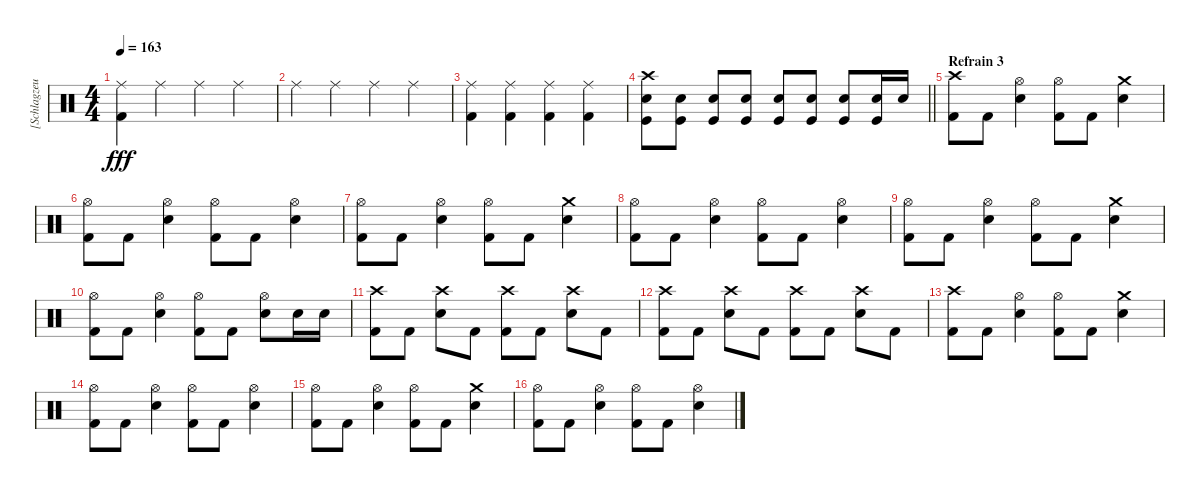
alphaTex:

\track ("[Schlagzeug]" "[Schlagzeu") {instrument percussion}
\staff {score}
\articulation defaults
\ts (4 4)
\tempo 163
\clef neutral
\ks c
("Ride (middle)" "Kick (hit) 2").4{dy fff} "Ride (middle)".4 "Ride (middle)".4 "Ride (middle)".4 |
"Ride (middle)".4 "Ride (middle)".4 "Ride (middle)".4 "Ride (middle)".4 |
("Ride (middle)" "Kick (hit) 2").4 ("Ride (middle)" "Kick (hit) 2").4 ("Ride (middle)" "Kick (hit) 2").4 ("Ride (middle)" "Kick (hit) 2").4 |
\barLineRight lightlight
("Crash high (hit)" "Electric Snare (hit)" "Kick (hit)").8 ("Electric Snare (hit)" "Kick (hit)").8 ("Electric Snare (hit)" "Kick (hit)").8 ("Electric Snare (hit)" "Kick (hit)").8 ("Electric Snare (hit)" "Kick (hit)").8 ("Electric Snare (hit)" "Kick (hit)").8 ("Electric Snare (hit)" "Kick (hit)").8 ("Electric Snare (hit)" "Kick (hit)").16 "Electric Snare (hit)".16 |
\section ("" "Refrain 3")
("Crash high (hit)" "Kick (hit) 2").8 "Kick (hit) 2".8 ("Hi-Hat (open)" "Electric Snare (hit)").4 ("Hi-Hat (open)" "Kick (hit) 2").8 "Kick (hit) 2".8 ("Crash medium (hit)" "Electric Snare (hit)").4 |
("Hi-Hat (open)" "Kick (hit) 2").8 "Kick (hit) 2".8 ("Hi-Hat (open)" "Electric Snare (hit)").4 ("Hi-Hat (open)" "Kick (hit) 2").8 "Kick (hit) 2".8 ("Hi-Hat (open)" "Electric Snare (hit)").4 |
("Hi-Hat (open)" "Kick (hit) 2").8 "Kick (hit) 2".8 ("Hi-Hat (open)" "Electric Snare (hit)").4 ("Hi-Hat (open)" "Kick (hit) 2").8 "Kick (hit) 2".8 ("Crash medium (hit)" "Electric Snare (hit)").4 |
("Hi-Hat (open)" "Kick (hit) 2").8 "Kick (hit) 2".8 ("Hi-Hat (open)" "Electric Snare (hit)").4 ("Hi-Hat (open)" "Kick (hit) 2").8 "Kick (hit) 2".8 ("Hi-Hat (open)" "Electric Snare (hit)").4 |
("Hi-Hat (open)" "Kick (hit) 2").8 "Kick (hit) 2".8 ("Hi-Hat (open)" "Electric Snare (hit)").4 ("Hi-Hat (open)" "Kick (hit) 2").8 "Kick (hit) 2".8 ("Crash medium (hit)" "Electric Snare (hit)").4 |
("Hi-Hat (open)" "Kick (hit) 2").8 "Kick (hit) 2".8 ("Hi-Hat (open)" "Electric Snare (hit)").4 ("Hi-Hat (open)" "Kick (hit) 2").8 "Kick (hit) 2".8 ("Hi-Hat (open)" "Electric Snare (hit)").8 "Electric Snare (hit)".16 "Electric Snare (hit)".16 |
("Crash high (hit)" "Kick (hit) 2").8 "Kick (hit) 2".8 ("Crash high (hit)" "Electric Snare (hit)").8 "Kick (hit) 2".8 ("Crash high (hit)" "Kick (hit) 2").8 "Kick (hit) 2".8 ("Crash high (hit)" "Electric Snare (hit)").8 "Kick (hit) 2".8 |
("Crash high (hit)" "Kick (hit) 2").8 "Kick (hit) 2".8 ("Crash high (hit)" "Electric Snare (hit)").8 "Kick (hit) 2".8 ("Crash high (hit)" "Kick (hit) 2").8 "Kick (hit) 2".8 ("Crash high (hit)" "Electric Snare (hit)").8 "Kick (hit) 2".8 |
("Crash high (hit)" "Kick (hit) 2").8 "Kick (hit) 2".8 ("Hi-Hat (open)" "Electric Snare (hit)").4 ("Hi-Hat (open)" "Kick (hit) 2").8 "Kick (hit) 2".8 ("Crash medium (hit)" "Electric Snare (hit)").4 |
("Hi-Hat (open)" "Kick (hit) 2").8 "Kick (hit) 2".8 ("Hi-Hat (open)" "Electric Snare (hit)").4 ("Hi-Hat (open)" "Kick (hit) 2").8 "Kick (hit) 2".8 ("Hi-Hat (open)" "Electric Snare (hit)").4 |
("Hi-Hat (open)" "Kick (hit) 2").8 "Kick (hit) 2".8 ("Hi-Hat (open)" "Electric Snare (hit)").4 ("Hi-Hat (open)" "Kick (hit) 2").8 "Kick (hit) 2".8 ("Crash medium (hit)" "Electric Snare (hit)").4 |
("Hi-Hat (open)" "Kick (hit) 2").8 "Kick (hit) 2".8 ("Hi-Hat (open)" "Electric Snare (hit)").4 ("Hi-Hat (open)" "Kick (hit) 2").8 "Kick (hit) 2".8 ("Hi-Hat (open)" "Electric Snare (hit)").4
